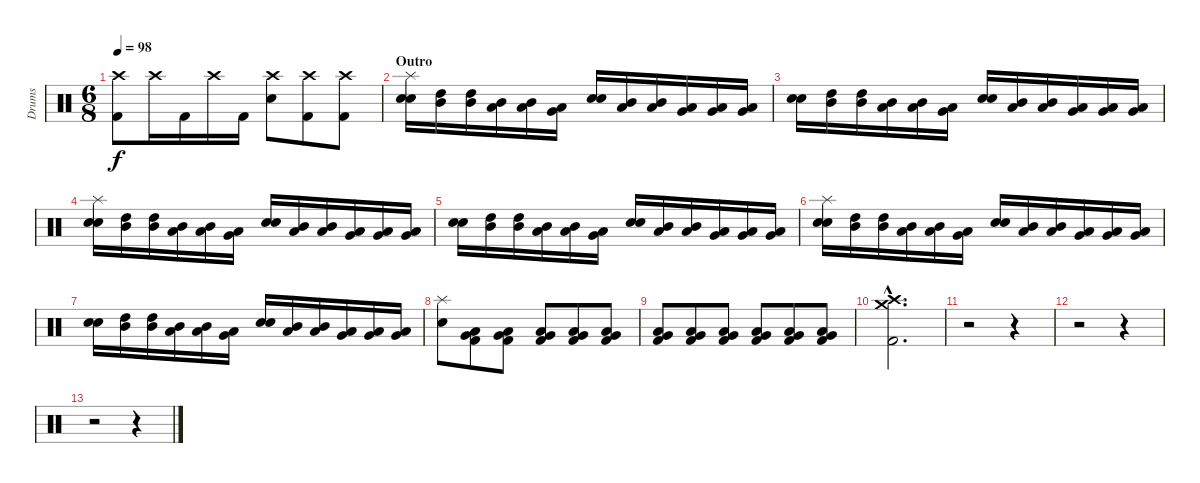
\track ("Drums" "Drums") {instrument percussion}
\staff {score}
\articulation defaults
\ts (6 8)
\tempo 98
\clef neutral
\ks c
("Crash high (hit)" "Kick (hit) 2").8{dy f} "Crash high (hit)".16 "Kick (hit) 2".16 "Crash high (hit)".16 "Kick (hit) 2".16 ("Crash high (hit)" "Electric Snare (hit)").8 ("Crash high (hit)" "Kick (hit) 2").8 ("Crash high (hit)" "Kick (hit) 2").8 |
\section ("" "Outro")
("Splash (hit)" "Electric Snare (hit)" "Electric Snare (hit)").16 ("High Tom (hit)" "Mid Tom (hit)").16 ("High Tom (hit)" "Mid Tom (hit)").16 ("Mid Tom (hit)" "Low Tom (hit)").16 ("Mid Tom (hit)" "Low Tom (hit)").16 ("Low Tom (hit)" "Very Low Tom (hit)").16 ("Electric Snare (hit)" "Electric Snare (hit)").16 ("Mid Tom (hit)" "Low Tom (hit)").16 ("Mid Tom (hit)" "Low Tom (hit)").16 ("Low Tom (hit)" "Very Low Tom (hit)").16 ("Low Tom (hit)" "Very Low Tom (hit)").16 ("Very Low Tom (hit)" "Low Floor Tom (hit)").16 |
("Electric Snare (hit)" "Electric Snare (hit)").16 ("High Tom (hit)" "Mid Tom (hit)").16 ("High Tom (hit)" "Mid Tom (hit)").16 ("Mid Tom (hit)" "Low Tom (hit)").16 ("Mid Tom (hit)" "Low Tom (hit)").16 ("Low Tom (hit)" "Very Low Tom (hit)").16 ("Electric Snare (hit)" "Electric Snare (hit)").16 ("Mid Tom (hit)" "Low Tom (hit)").16 ("Mid Tom (hit)" "Low Tom (hit)").16 ("Low Tom (hit)" "Very Low Tom (hit)").16 ("Low Tom (hit)" "Very Low Tom (hit)").16 ("Very Low Tom (hit)" "Low Floor Tom (hit)").16 |
("Splash (hit)" "Electric Snare (hit)" "Electric Snare (hit)").16 ("High Tom (hit)" "Mid Tom (hit)").16 ("High Tom (hit)" "Mid Tom (hit)").16 ("Mid Tom (hit)" "Low Tom (hit)").16 ("Mid Tom (hit)" "Low Tom (hit)").16 ("Low Tom (hit)" "Very Low Tom (hit)").16 ("Electric Snare (hit)" "Electric Snare (hit)").16 ("Mid Tom (hit)" "Low Tom (hit)").16 ("Mid Tom (hit)" "Low Tom (hit)").16 ("Low Tom (hit)" "Very Low Tom (hit)").16 ("Low Tom (hit)" "Very Low Tom (hit)").16 ("Very Low Tom (hit)" "Low Floor Tom (hit)").16 |
("Electric Snare (hit)" "Electric Snare (hit)").16 ("High Tom (hit)" "Mid Tom (hit)").16 ("High Tom (hit)" "Mid Tom (hit)").16 ("Mid Tom (hit)" "Low Tom (hit)").16 ("Mid Tom (hit)" "Low Tom (hit)").16 ("Low Tom (hit)" "Very Low Tom (hit)").16 ("Electric Snare (hit)" "Electric Snare (hit)").16 ("Mid Tom (hit)" "Low Tom (hit)").16 ("Mid Tom (hit)" "Low Tom (hit)").16 ("Low Tom (hit)" "Very Low Tom (hit)").16 ("Low Tom (hit)" "Very Low Tom (hit)").16 ("Very Low Tom (hit)" "Low Floor Tom (hit)").16 |
("Splash (hit)" "Electric Snare (hit)" "Electric Snare (hit)").16 ("High Tom (hit)" "Mid Tom (hit)").16 ("High Tom (hit)" "Mid Tom (hit)").16 ("Mid Tom (hit)" "Low Tom (hit)").16 ("Mid Tom (hit)" "Low Tom (hit)").16 ("Low Tom (hit)" "Very Low Tom (hit)").16 ("Electric Snare (hit)" "Electric Snare (hit)").16 ("Mid Tom (hit)" "Low Tom (hit)").16 ("Mid Tom (hit)" "Low Tom (hit)").16 ("Low Tom (hit)" "Very Low Tom (hit)").16 ("Low Tom (hit)" "Very Low Tom (hit)").16 ("Very Low Tom (hit)" "Low Floor Tom (hit)").16 |
("Electric Snare (hit)" "Electric Snare (hit)").16 ("High Tom (hit)" "Mid Tom (hit)").16 ("High Tom (hit)" "Mid Tom (hit)").16 ("Mid Tom (hit)" "Low Tom (hit)").16 ("Mid Tom (hit)" "Low Tom (hit)").16 ("Low Tom (hit)" "Very Low Tom (hit)").16 ("Electric Snare (hit)" "Electric Snare (hit)").16 ("Mid Tom (hit)" "Low Tom (hit)").16 ("Mid Tom (hit)" "Low Tom (hit)").16 ("Low Tom (hit)" "Very Low Tom (hit)").16 ("Low Tom (hit)" "Very Low Tom (hit)").16 ("Very Low Tom (hit)" "Low Floor Tom (hit)").16 |
("Splash (hit)" "Electric Snare (hit)").8{volume 10} ("Low Tom (hit)" "Very Low Tom (hit)" "Kick (hit) 2").8{volume 16} ("Low Tom (hit)" "Very Low Tom (hit)" "Kick (hit) 2").8 ("Low Tom (hit)" "Very Low Tom (hit)" "Kick (hit) 2").8 ("Low Tom (hit)" "Very Low Tom (hit)" "Kick (hit) 2").8 ("Low Tom (hit)" "Very Low Tom (hit)" "Kick (hit) 2").8 |
("Low Tom (hit)" "Very Low Tom (hit)" "Kick (hit) 2").8 ("Low Tom (hit)" "Very Low Tom (hit)" "Kick (hit) 2").8 ("Low Tom (hit)" "Very Low Tom (hit)" "Kick (hit) 2").8 ("Low Tom (hit)" "Very Low Tom (hit)" "Kick (hit) 2").8 ("Low Tom (hit)" "Very Low Tom (hit)" "Kick (hit) 2").8 ("Low Tom (hit)" "Very Low Tom (hit)" "Kick (hit) 2").8 |
("Crash high (hit)"{hac} "Crash medium (hit)"{hac} "Kick (hit) 2"{hac}).2{d} |
r.2 r.4 |
r.2 r.4 |
r.2 r.4
